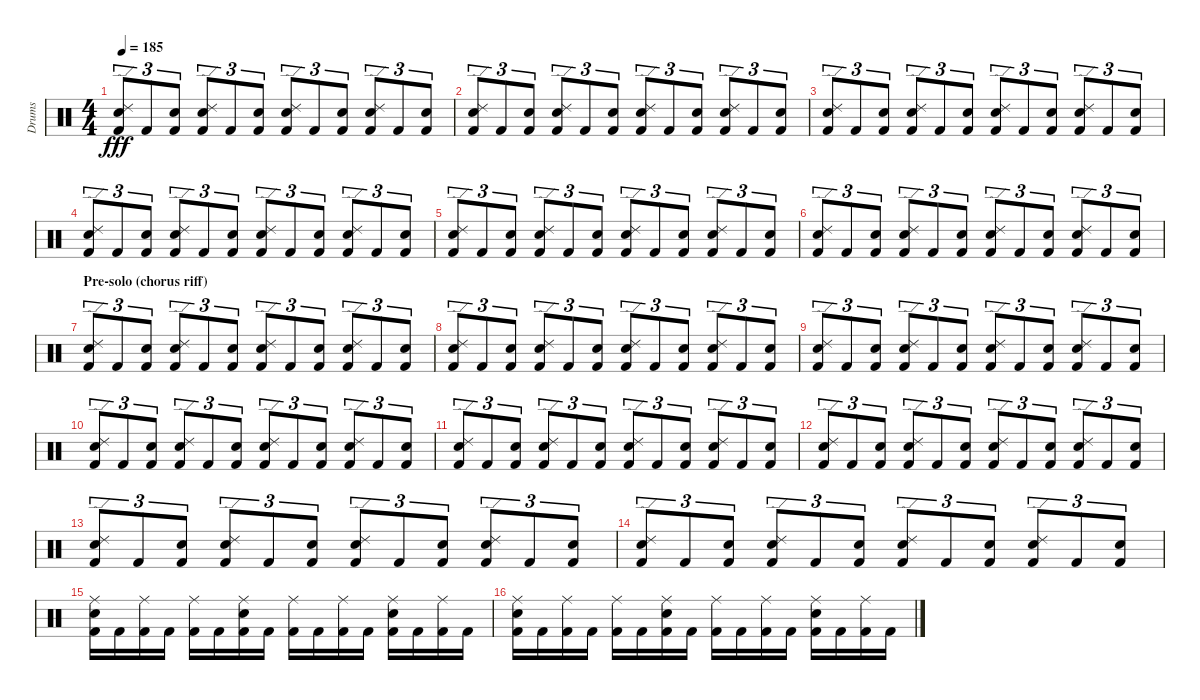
\track ("Drums" "Drums") {instrument percussion}
\staff {score}
\articulation defaults
\ts (4 4)
\tempo 185
\clef neutral
\ks c
("Ride (edge) 2" "Electric Snare (hit)" "Kick (hit) 2").8{tu (3 2) dy fff} "Kick (hit) 2".8{tu (3 2)} ("Snare (hit) 2" "Kick (hit) 2").8{tu (3 2)} ("Ride (edge) 2" "Electric Snare (hit)" "Kick (hit) 2").8{tu (3 2)} "Kick (hit) 2".8{tu (3 2)} ("Snare (hit) 2" "Kick (hit) 2").8{tu (3 2)} ("Ride (edge) 2" "Electric Snare (hit)" "Kick (hit) 2").8{tu (3 2)} "Kick (hit) 2".8{tu (3 2)} ("Snare (hit) 2" "Kick (hit) 2").8{tu (3 2)} ("Ride (edge) 2" "Electric Snare (hit)" "Kick (hit) 2").8{tu (3 2)} "Kick (hit) 2".8{tu (3 2)} ("Snare (hit) 2" "Kick (hit) 2").8{tu (3 2)} |
("Ride (edge) 2" "Electric Snare (hit)" "Kick (hit) 2").8{tu (3 2)} "Kick (hit) 2".8{tu (3 2)} ("Snare (hit) 2" "Kick (hit) 2").8{tu (3 2)} ("Ride (edge) 2" "Electric Snare (hit)" "Kick (hit) 2").8{tu (3 2)} "Kick (hit) 2".8{tu (3 2)} ("Snare (hit) 2" "Kick (hit) 2").8{tu (3 2)} ("Ride (edge) 2" "Electric Snare (hit)" "Kick (hit) 2").8{tu (3 2)} "Kick (hit) 2".8{tu (3 2)} ("Snare (hit) 2" "Kick (hit) 2").8{tu (3 2)} ("Ride (edge) 2" "Electric Snare (hit)" "Kick (hit) 2").8{tu (3 2)} "Kick (hit) 2".8{tu (3 2)} ("Snare (hit) 2" "Kick (hit) 2").8{tu (3 2)} |
("Ride (edge) 2" "Electric Snare (hit)" "Kick (hit) 2").8{tu (3 2)} "Kick (hit) 2".8{tu (3 2)} ("Snare (hit) 2" "Kick (hit) 2").8{tu (3 2)} ("Ride (edge) 2" "Electric Snare (hit)" "Kick (hit) 2").8{tu (3 2)} "Kick (hit) 2".8{tu (3 2)} ("Snare (hit) 2" "Kick (hit) 2").8{tu (3 2)} ("Ride (edge) 2" "Electric Snare (hit)" "Kick (hit) 2").8{tu (3 2)} "Kick (hit) 2".8{tu (3 2)} ("Snare (hit) 2" "Kick (hit) 2").8{tu (3 2)} ("Ride (edge) 2" "Electric Snare (hit)" "Kick (hit) 2").8{tu (3 2)} "Kick (hit) 2".8{tu (3 2)} ("Snare (hit) 2" "Kick (hit) 2").8{tu (3 2)} |
("Ride (edge) 2" "Electric Snare (hit)" "Kick (hit) 2").8{tu (3 2)} "Kick (hit) 2".8{tu (3 2)} ("Snare (hit) 2" "Kick (hit) 2").8{tu (3 2)} ("Ride (edge) 2" "Electric Snare (hit)" "Kick (hit) 2").8{tu (3 2)} "Kick (hit) 2".8{tu (3 2)} ("Snare (hit) 2" "Kick (hit) 2").8{tu (3 2)} ("Ride (edge) 2" "Electric Snare (hit)" "Kick (hit) 2").8{tu (3 2)} "Kick (hit) 2".8{tu (3 2)} ("Snare (hit) 2" "Kick (hit) 2").8{tu (3 2)} ("Ride (edge) 2" "Electric Snare (hit)" "Kick (hit) 2").8{tu (3 2)} "Kick (hit) 2".8{tu (3 2)} ("Snare (hit) 2" "Kick (hit) 2").8{tu (3 2)} |
("Ride (edge) 2" "Electric Snare (hit)" "Kick (hit) 2").8{tu (3 2)} "Kick (hit) 2".8{tu (3 2)} ("Snare (hit) 2" "Kick (hit) 2").8{tu (3 2)} ("Ride (edge) 2" "Electric Snare (hit)" "Kick (hit) 2").8{tu (3 2)} "Kick (hit) 2".8{tu (3 2)} ("Snare (hit) 2" "Kick (hit) 2").8{tu (3 2)} ("Ride (edge) 2" "Electric Snare (hit)" "Kick (hit) 2").8{tu (3 2)} "Kick (hit) 2".8{tu (3 2)} ("Snare (hit) 2" "Kick (hit) 2").8{tu (3 2)} ("Ride (edge) 2" "Electric Snare (hit)" "Kick (hit) 2").8{tu (3 2)} "Kick (hit) 2".8{tu (3 2)} ("Snare (hit) 2" "Kick (hit) 2").8{tu (3 2)} |
("Ride (edge) 2" "Electric Snare (hit)" "Kick (hit) 2").8{tu (3 2)} "Kick (hit) 2".8{tu (3 2)} ("Snare (hit) 2" "Kick (hit) 2").8{tu (3 2)} ("Ride (edge) 2" "Electric Snare (hit)" "Kick (hit) 2").8{tu (3 2)} "Kick (hit) 2".8{tu (3 2)} ("Snare (hit) 2" "Kick (hit) 2").8{tu (3 2)} ("Ride (edge) 2" "Electric Snare (hit)" "Kick (hit) 2").8{tu (3 2)} "Kick (hit) 2".8{tu (3 2)} ("Snare (hit) 2" "Kick (hit) 2").8{tu (3 2)} ("Ride (edge) 2" "Electric Snare (hit)" "Kick (hit) 2").8{tu (3 2)} "Kick (hit) 2".8{tu (3 2)} ("Snare (hit) 2" "Kick (hit) 2").8{tu (3 2)} |
\section ("" "Pre-solo (chorus riff)")
("Ride (edge) 2" "Electric Snare (hit)" "Kick (hit) 2").8{tu (3 2)} "Kick (hit) 2".8{tu (3 2)} ("Snare (hit) 2" "Kick (hit) 2").8{tu (3 2)} ("Ride (edge) 2" "Electric Snare (hit)" "Kick (hit) 2").8{tu (3 2)} "Kick (hit) 2".8{tu (3 2)} ("Snare (hit) 2" "Kick (hit) 2").8{tu (3 2)} ("Ride (edge) 2" "Electric Snare (hit)" "Kick (hit) 2").8{tu (3 2)} "Kick (hit) 2".8{tu (3 2)} ("Snare (hit) 2" "Kick (hit) 2").8{tu (3 2)} ("Ride (edge) 2" "Electric Snare (hit)" "Kick (hit) 2").8{tu (3 2)} "Kick (hit) 2".8{tu (3 2)} ("Snare (hit) 2" "Kick (hit) 2").8{tu (3 2)} |
("Ride (edge) 2" "Electric Snare (hit)" "Kick (hit) 2").8{tu (3 2)} "Kick (hit) 2".8{tu (3 2)} ("Snare (hit) 2" "Kick (hit) 2").8{tu (3 2)} ("Ride (edge) 2" "Electric Snare (hit)" "Kick (hit) 2").8{tu (3 2)} "Kick (hit) 2".8{tu (3 2)} ("Snare (hit) 2" "Kick (hit) 2").8{tu (3 2)} ("Ride (edge) 2" "Electric Snare (hit)" "Kick (hit) 2").8{tu (3 2)} "Kick (hit) 2".8{tu (3 2)} ("Snare (hit) 2" "Kick (hit) 2").8{tu (3 2)} ("Ride (edge) 2" "Electric Snare (hit)" "Kick (hit) 2").8{tu (3 2)} "Kick (hit) 2".8{tu (3 2)} ("Snare (hit) 2" "Kick (hit) 2").8{tu (3 2)} |
("Ride (edge) 2" "Electric Snare (hit)" "Kick (hit) 2").8{tu (3 2)} "Kick (hit) 2".8{tu (3 2)} ("Snare (hit) 2" "Kick (hit) 2").8{tu (3 2)} ("Ride (edge) 2" "Electric Snare (hit)" "Kick (hit) 2").8{tu (3 2)} "Kick (hit) 2".8{tu (3 2)} ("Snare (hit) 2" "Kick (hit) 2").8{tu (3 2)} ("Ride (edge) 2" "Electric Snare (hit)" "Kick (hit) 2").8{tu (3 2)} "Kick (hit) 2".8{tu (3 2)} ("Snare (hit) 2" "Kick (hit) 2").8{tu (3 2)} ("Ride (edge) 2" "Electric Snare (hit)" "Kick (hit) 2").8{tu (3 2)} "Kick (hit) 2".8{tu (3 2)} ("Snare (hit) 2" "Kick (hit) 2").8{tu (3 2)} |
("Ride (edge) 2" "Electric Snare (hit)" "Kick (hit) 2").8{tu (3 2)} "Kick (hit) 2".8{tu (3 2)} ("Snare (hit) 2" "Kick (hit) 2").8{tu (3 2)} ("Ride (edge) 2" "Electric Snare (hit)" "Kick (hit) 2").8{tu (3 2)} "Kick (hit) 2".8{tu (3 2)} ("Snare (hit) 2" "Kick (hit) 2").8{tu (3 2)} ("Ride (edge) 2" "Electric Snare (hit)" "Kick (hit) 2").8{tu (3 2)} "Kick (hit) 2".8{tu (3 2)} ("Snare (hit) 2" "Kick (hit) 2").8{tu (3 2)} ("Ride (edge) 2" "Electric Snare (hit)" "Kick (hit) 2").8{tu (3 2)} "Kick (hit) 2".8{tu (3 2)} ("Snare (hit) 2" "Kick (hit) 2").8{tu (3 2)} |
("Ride (edge) 2" "Electric Snare (hit)" "Kick (hit) 2").8{tu (3 2)} "Kick (hit) 2".8{tu (3 2)} ("Snare (hit) 2" "Kick (hit) 2").8{tu (3 2)} ("Ride (edge) 2" "Electric Snare (hit)" "Kick (hit) 2").8{tu (3 2)} "Kick (hit) 2".8{tu (3 2)} ("Snare (hit) 2" "Kick (hit) 2").8{tu (3 2)} ("Ride (edge) 2" "Electric Snare (hit)" "Kick (hit) 2").8{tu (3 2)} "Kick (hit) 2".8{tu (3 2)} ("Snare (hit) 2" "Kick (hit) 2").8{tu (3 2)} ("Ride (edge) 2" "Electric Snare (hit)" "Kick (hit) 2").8{tu (3 2)} "Kick (hit) 2".8{tu (3 2)} ("Snare (hit) 2" "Kick (hit) 2").8{tu (3 2)} |
("Ride (edge) 2" "Electric Snare (hit)" "Kick (hit) 2").8{tu (3 2)} "Kick (hit) 2".8{tu (3 2)} ("Snare (hit) 2" "Kick (hit) 2").8{tu (3 2)} ("Ride (edge) 2" "Electric Snare (hit)" "Kick (hit) 2").8{tu (3 2)} "Kick (hit) 2".8{tu (3 2)} ("Snare (hit) 2" "Kick (hit) 2").8{tu (3 2)} ("Ride (edge) 2" "Electric Snare (hit)" "Kick (hit) 2").8{tu (3 2)} "Kick (hit) 2".8{tu (3 2)} ("Snare (hit) 2" "Kick (hit) 2").8{tu (3 2)} ("Ride (edge) 2" "Electric Snare (hit)" "Kick (hit) 2").8{tu (3 2)} "Kick (hit) 2".8{tu (3 2)} ("Snare (hit) 2" "Kick (hit) 2").8{tu (3 2)} |
("Ride (edge) 2" "Electric Snare (hit)" "Kick (hit) 2").8{tu (3 2)} "Kick (hit) 2".8{tu (3 2)} ("Snare (hit) 2" "Kick (hit) 2").8{tu (3 2)} ("Ride (edge) 2" "Electric Snare (hit)" "Kick (hit) 2").8{tu (3 2)} "Kick (hit) 2".8{tu (3 2)} ("Snare (hit) 2" "Kick (hit) 2").8{tu (3 2)} ("Ride (edge) 2" "Electric Snare (hit)" "Kick (hit) 2").8{tu (3 2)} "Kick (hit) 2".8{tu (3 2)} ("Snare (hit) 2" "Kick (hit) 2").8{tu (3 2)} ("Ride (edge) 2" "Electric Snare (hit)" "Kick (hit) 2").8{tu (3 2)} "Kick (hit) 2".8{tu (3 2)} ("Snare (hit) 2" "Kick (hit) 2").8{tu (3 2)} |
("Ride (edge) 2" "Electric Snare (hit)" "Kick (hit) 2").8{tu (3 2)} "Kick (hit) 2".8{tu (3 2)} ("Snare (hit) 2" "Kick (hit) 2").8{tu (3 2)} ("Ride (edge) 2" "Electric Snare (hit)" "Kick (hit) 2").8{tu (3 2)} "Kick (hit) 2".8{tu (3 2)} ("Snare (hit) 2" "Kick (hit) 2").8{tu (3 2)} ("Ride (edge) 2" "Electric Snare (hit)" "Kick (hit) 2").8{tu (3 2)} "Kick (hit) 2".8{tu (3 2)} ("Snare (hit) 2" "Kick (hit) 2").8{tu (3 2)} ("Ride (edge) 2" "Electric Snare (hit)" "Kick (hit) 2").8{tu (3 2)} "Kick (hit) 2".8{tu (3 2)} ("Snare (hit) 2" "Kick (hit) 2").8{tu (3 2)} |
("Ride (middle)" "Electric Snare (hit)" "Kick (hit) 2").16 "Kick (hit) 2".16 ("Ride (middle)" "Kick (hit) 2").16 "Kick (hit) 2".16 ("Ride (middle)" "Kick (hit) 2").16 "Kick (hit) 2".16 ("Ride (middle)" "Electric Snare (hit)" "Kick (hit) 2").16 "Kick (hit) 2".16 ("Ride (middle)" "Kick (hit) 2").16 "Kick (hit) 2".16 ("Ride (middle)" "Kick (hit) 2").16 "Kick (hit) 2".16 ("Ride (middle)" "Electric Snare (hit)" "Kick (hit) 2").16 "Kick (hit) 2".16 ("Ride (middle)" "Kick (hit) 2").16 "Kick (hit) 2".16 |
("Ride (middle)" "Electric Snare (hit)" "Kick (hit) 2").16 "Kick (hit) 2".16 ("Ride (middle)" "Kick (hit) 2").16 "Kick (hit) 2".16 ("Ride (middle)" "Kick (hit) 2").16 "Kick (hit) 2".16 ("Ride (middle)" "Electric Snare (hit)" "Kick (hit) 2").16 "Kick (hit) 2".16 ("Ride (middle)" "Kick (hit) 2").16 "Kick (hit) 2".16 ("Ride (middle)" "Kick (hit) 2").16 "Kick (hit) 2".16 ("Ride (middle)" "Electric Snare (hit)" "Kick (hit) 2").16 "Kick (hit) 2".16 ("Ride (middle)" "Kick (hit) 2").16 "Kick (hit) 2".16
